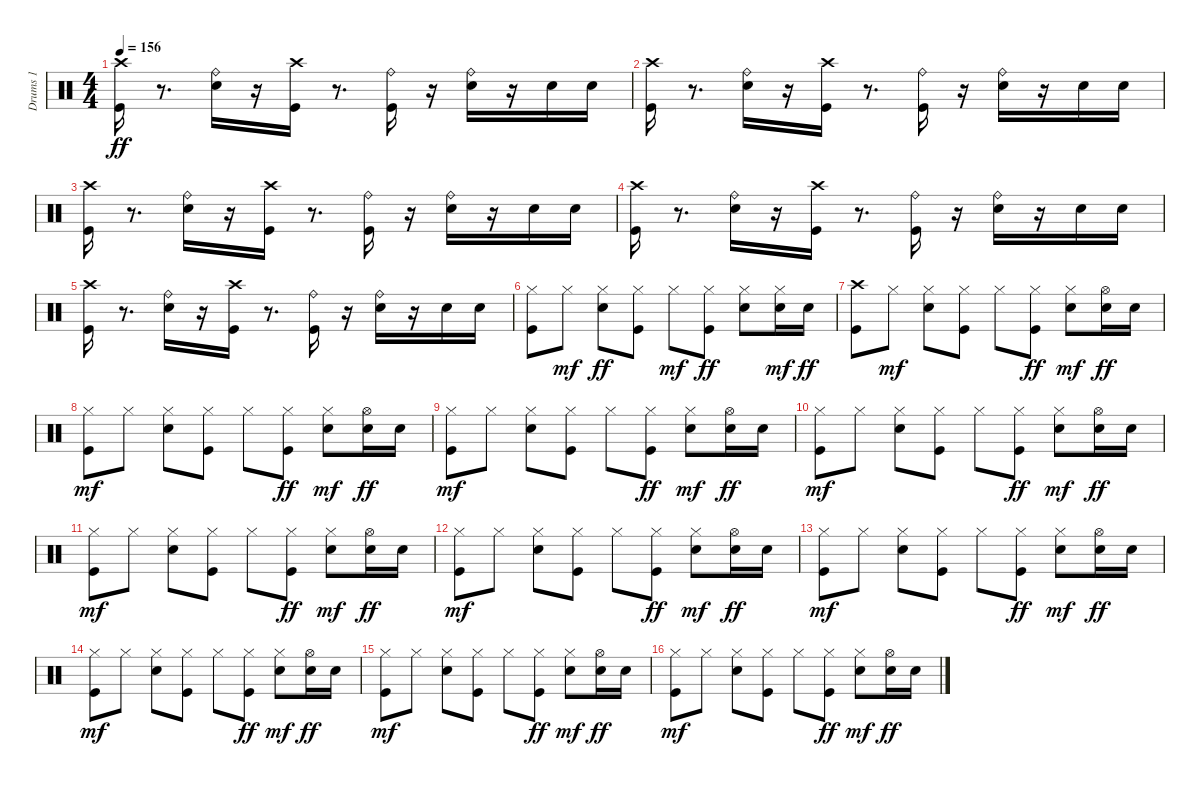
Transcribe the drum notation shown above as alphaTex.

\track ("Drums 1" "Drums 1") {instrument percussion}
\staff {score}
\articulation defaults
\ts (4 4)
\tempo 156
\clef neutral
\ks c
("Kick (hit)" "Crash high (hit)").16{dy ff} r.8{d} ("Ride (bell)" "Electric Snare (hit)").16 r.16 ("Crash high (hit)" "Kick (hit)").16 r.8{d} ("Ride (bell)" "Kick (hit)").16 r.16 ("Electric Snare (hit)" "Ride (bell)").16 r.16 "Electric Snare (hit)".16 "Electric Snare (hit)".16 |
("Kick (hit)" "Crash high (hit)").16 r.8{d} ("Ride (bell)" "Electric Snare (hit)").16 r.16 ("Crash high (hit)" "Kick (hit)").16 r.8{d} ("Ride (bell)" "Kick (hit)").16 r.16 ("Electric Snare (hit)" "Ride (bell)").16 r.16 "Electric Snare (hit)".16 "Electric Snare (hit)".16 |
("Kick (hit)" "Crash high (hit)").16 r.8{d} ("Ride (bell)" "Electric Snare (hit)").16 r.16 ("Crash high (hit)" "Kick (hit)").16 r.8{d} ("Ride (bell)" "Kick (hit)").16 r.16 ("Electric Snare (hit)" "Ride (bell)").16 r.16 "Electric Snare (hit)".16 "Electric Snare (hit)".16 |
("Kick (hit)" "Crash high (hit)").16 r.8{d} ("Ride (bell)" "Electric Snare (hit)").16 r.16 ("Crash high (hit)" "Kick (hit)").16 r.8{d} ("Ride (bell)" "Kick (hit)").16 r.16 ("Electric Snare (hit)" "Ride (bell)").16 r.16 "Electric Snare (hit)".16 "Electric Snare (hit)".16 |
("Kick (hit)" "Crash high (hit)").16 r.8{d} ("Ride (bell)" "Electric Snare (hit)").16 r.16 ("Crash high (hit)" "Kick (hit)").16 r.8{d} ("Ride (bell)" "Kick (hit)").16 r.16 ("Electric Snare (hit)" "Ride (bell)").16 r.16 "Electric Snare (hit)".16 "Electric Snare (hit)".16 |
("Hi-Hat (closed)" "Kick (hit)").8 "Hi-Hat (closed)".8{dy mf} ("Hi-Hat (closed)" "Electric Snare (hit)").8{dy ff} ("Hi-Hat (closed)" "Kick (hit)").8 "Hi-Hat (closed)".8{dy mf} ("Hi-Hat (closed)" "Kick (hit)").8{dy ff} ("Hi-Hat (closed)" "Electric Snare (hit)").8 ("Electric Snare (hit)" "Hi-Hat (closed)").16{dy mf} "Electric Snare (hit)".16{dy ff} |
("Kick (hit)" "Crash high (hit)").8 "Hi-Hat (closed)".8{dy mf} ("Electric Snare (hit)" "Hi-Hat (closed)").8 ("Kick (hit)" "Hi-Hat (closed)").8 "Hi-Hat (closed)".8 ("Hi-Hat (closed)" "Kick (hit)").8{dy ff} ("Electric Snare (hit)" "Hi-Hat (closed)").8{dy mf} ("Hi-Hat (open)" "Electric Snare (hit)").16{dy ff} "Electric Snare (hit)".16 |
("Kick (hit)" "Hi-Hat (closed)").8{dy mf} "Hi-Hat (closed)".8 ("Electric Snare (hit)" "Hi-Hat (closed)").8 ("Kick (hit)" "Hi-Hat (closed)").8 "Hi-Hat (closed)".8 ("Hi-Hat (closed)" "Kick (hit)").8{dy ff} ("Electric Snare (hit)" "Hi-Hat (closed)").8{dy mf} ("Hi-Hat (open)" "Electric Snare (hit)").16{dy ff} "Electric Snare (hit)".16 |
("Kick (hit)" "Hi-Hat (closed)").8{dy mf} "Hi-Hat (closed)".8 ("Electric Snare (hit)" "Hi-Hat (closed)").8 ("Kick (hit)" "Hi-Hat (closed)").8 "Hi-Hat (closed)".8 ("Hi-Hat (closed)" "Kick (hit)").8{dy ff} ("Electric Snare (hit)" "Hi-Hat (closed)").8{dy mf} ("Hi-Hat (open)" "Electric Snare (hit)").16{dy ff} "Electric Snare (hit)".16 |
("Kick (hit)" "Hi-Hat (closed)").8{dy mf} "Hi-Hat (closed)".8 ("Electric Snare (hit)" "Hi-Hat (closed)").8 ("Kick (hit)" "Hi-Hat (closed)").8 "Hi-Hat (closed)".8 ("Hi-Hat (closed)" "Kick (hit)").8{dy ff} ("Electric Snare (hit)" "Hi-Hat (closed)").8{dy mf} ("Hi-Hat (open)" "Electric Snare (hit)").16{dy ff} "Electric Snare (hit)".16 |
("Kick (hit)" "Hi-Hat (closed)").8{dy mf} "Hi-Hat (closed)".8 ("Electric Snare (hit)" "Hi-Hat (closed)").8 ("Kick (hit)" "Hi-Hat (closed)").8 "Hi-Hat (closed)".8 ("Hi-Hat (closed)" "Kick (hit)").8{dy ff} ("Electric Snare (hit)" "Hi-Hat (closed)").8{dy mf} ("Hi-Hat (open)" "Electric Snare (hit)").16{dy ff} "Electric Snare (hit)".16 |
("Kick (hit)" "Hi-Hat (closed)").8{dy mf} "Hi-Hat (closed)".8 ("Electric Snare (hit)" "Hi-Hat (closed)").8 ("Kick (hit)" "Hi-Hat (closed)").8 "Hi-Hat (closed)".8 ("Hi-Hat (closed)" "Kick (hit)").8{dy ff} ("Electric Snare (hit)" "Hi-Hat (closed)").8{dy mf} ("Hi-Hat (open)" "Electric Snare (hit)").16{dy ff} "Electric Snare (hit)".16 |
("Kick (hit)" "Hi-Hat (closed)").8{dy mf} "Hi-Hat (closed)".8 ("Electric Snare (hit)" "Hi-Hat (closed)").8 ("Kick (hit)" "Hi-Hat (closed)").8 "Hi-Hat (closed)".8 ("Hi-Hat (closed)" "Kick (hit)").8{dy ff} ("Electric Snare (hit)" "Hi-Hat (closed)").8{dy mf} ("Hi-Hat (open)" "Electric Snare (hit)").16{dy ff} "Electric Snare (hit)".16 |
("Kick (hit)" "Hi-Hat (closed)").8{dy mf} "Hi-Hat (closed)".8 ("Electric Snare (hit)" "Hi-Hat (closed)").8 ("Kick (hit)" "Hi-Hat (closed)").8 "Hi-Hat (closed)".8 ("Hi-Hat (closed)" "Kick (hit)").8{dy ff} ("Electric Snare (hit)" "Hi-Hat (closed)").8{dy mf} ("Hi-Hat (open)" "Electric Snare (hit)").16{dy ff} "Electric Snare (hit)".16 |
("Kick (hit)" "Hi-Hat (closed)").8{dy mf} "Hi-Hat (closed)".8 ("Electric Snare (hit)" "Hi-Hat (closed)").8 ("Kick (hit)" "Hi-Hat (closed)").8 "Hi-Hat (closed)".8 ("Hi-Hat (closed)" "Kick (hit)").8{dy ff} ("Electric Snare (hit)" "Hi-Hat (closed)").8{dy mf} ("Hi-Hat (open)" "Electric Snare (hit)").16{dy ff} "Electric Snare (hit)".16 |
("Kick (hit)" "Hi-Hat (closed)").8{dy mf} "Hi-Hat (closed)".8 ("Electric Snare (hit)" "Hi-Hat (closed)").8 ("Kick (hit)" "Hi-Hat (closed)").8 "Hi-Hat (closed)".8 ("Hi-Hat (closed)" "Kick (hit)").8{dy ff} ("Electric Snare (hit)" "Hi-Hat (closed)").8{dy mf} ("Hi-Hat (open)" "Electric Snare (hit)").16{dy ff} "Electric Snare (hit)".16
